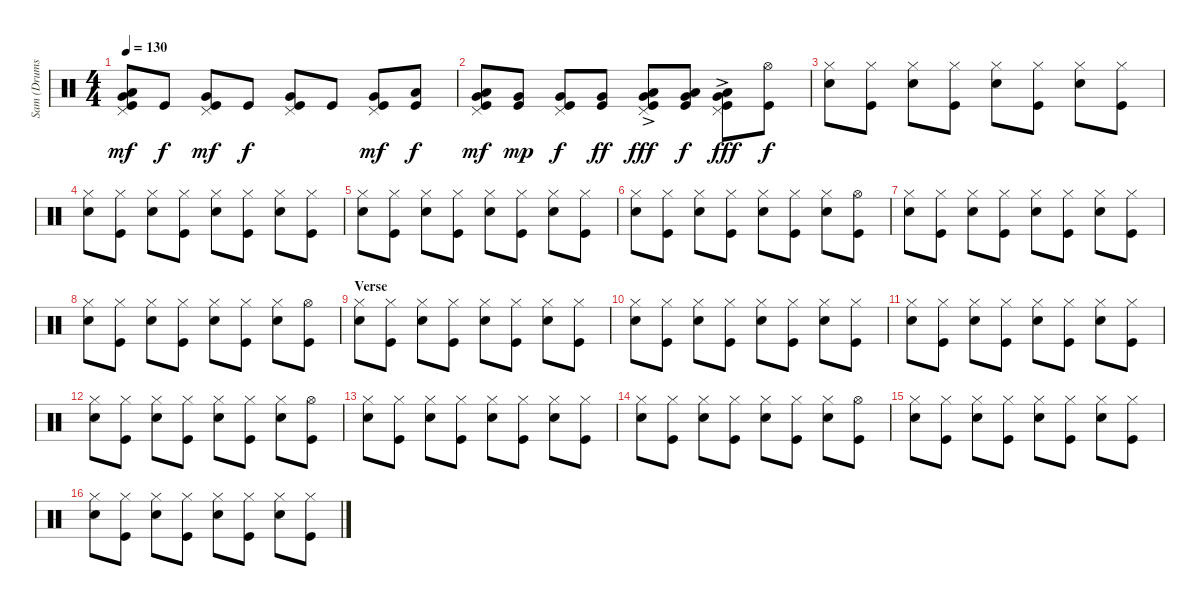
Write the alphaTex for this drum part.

\track ("Sam (Drums)" "Sam (Drums") {instrument percussion}
\staff {score}
\articulation defaults
\ts (4 4)
\tempo 130
\clef neutral
\ks c
("Pedal Hi-Hat (hit)" "Low Tom (hit)" "Very Low Tom (hit)" "Kick (hit)").8{dy mf} "Kick (hit)".8{dy f} ("Pedal Hi-Hat (hit)" "Very Low Tom (hit)" "Kick (hit)").8{dy mf} "Kick (hit)".8{dy f} ("Pedal Hi-Hat (hit)" "Very Low Tom (hit)" "Kick (hit)").8 "Kick (hit)".8 ("Pedal Hi-Hat (hit)" "Very Low Tom (hit)" "Kick (hit)").8{dy mf} ("Low Floor Tom (hit)" "Kick (hit)").8{dy f} |
("Pedal Hi-Hat (hit)" "Low Tom (hit)" "Very Low Tom (hit)" "Kick (hit)").8{dy mf} ("Very Low Tom (hit)" "Kick (hit)").8{dy mp} ("Pedal Hi-Hat (hit)" "Very Low Tom (hit)" "Kick (hit)").8{dy f} ("Very Low Tom (hit)" "Kick (hit)").8{dy ff} ("Pedal Hi-Hat (hit)"{ac} "Low Tom (hit)" "Very Low Tom (hit)" "Kick (hit)").8{dy fff} ("Very Low Tom (hit)" "Low Floor Tom (hit)" "Kick (hit)").8{dy f} ("Pedal Hi-Hat (hit)"{ac} "Low Tom (hit)" "Very Low Tom (hit)" "Kick (hit)").8{dy fff} ("Hi-Hat (open)" "Kick (hit)").8{dy f} |
("Hi-Hat (closed)" "Snare (hit) 2").8 ("Hi-Hat (closed)" "Kick (hit)").8 ("Hi-Hat (closed)" "Snare (hit) 2").8 ("Hi-Hat (closed)" "Kick (hit)").8 ("Hi-Hat (closed)" "Snare (hit) 2").8 ("Hi-Hat (closed)" "Kick (hit)").8 ("Hi-Hat (closed)" "Snare (hit) 2").8 ("Hi-Hat (closed)" "Kick (hit)").8 |
("Hi-Hat (closed)" "Snare (hit) 2").8 ("Hi-Hat (closed)" "Kick (hit)").8 ("Hi-Hat (closed)" "Snare (hit) 2").8 ("Hi-Hat (closed)" "Kick (hit)").8 ("Hi-Hat (closed)" "Snare (hit) 2").8 ("Hi-Hat (closed)" "Kick (hit)").8 ("Hi-Hat (closed)" "Snare (hit) 2").8 ("Hi-Hat (closed)" "Kick (hit)").8 |
("Hi-Hat (closed)" "Snare (hit) 2").8 ("Hi-Hat (closed)" "Kick (hit)").8 ("Hi-Hat (closed)" "Snare (hit) 2").8 ("Hi-Hat (closed)" "Kick (hit)").8 ("Hi-Hat (closed)" "Snare (hit) 2").8 ("Hi-Hat (closed)" "Kick (hit)").8 ("Hi-Hat (closed)" "Snare (hit) 2").8 ("Hi-Hat (closed)" "Kick (hit)").8 |
("Hi-Hat (closed)" "Snare (hit) 2").8 ("Hi-Hat (closed)" "Kick (hit)").8 ("Hi-Hat (closed)" "Snare (hit) 2").8 ("Hi-Hat (closed)" "Kick (hit)").8 ("Hi-Hat (closed)" "Snare (hit) 2").8 ("Hi-Hat (closed)" "Kick (hit)").8 ("Hi-Hat (closed)" "Snare (hit) 2").8 ("Hi-Hat (open)" "Kick (hit)").8 |
("Hi-Hat (closed)" "Snare (hit) 2").8 ("Hi-Hat (closed)" "Kick (hit)").8 ("Hi-Hat (closed)" "Snare (hit) 2").8 ("Hi-Hat (closed)" "Kick (hit)").8 ("Hi-Hat (closed)" "Snare (hit) 2").8 ("Hi-Hat (closed)" "Kick (hit)").8 ("Hi-Hat (closed)" "Snare (hit) 2").8 ("Hi-Hat (closed)" "Kick (hit)").8 |
("Hi-Hat (closed)" "Snare (hit) 2").8 ("Hi-Hat (closed)" "Kick (hit)").8 ("Hi-Hat (closed)" "Snare (hit) 2").8 ("Hi-Hat (closed)" "Kick (hit)").8 ("Hi-Hat (closed)" "Snare (hit) 2").8 ("Hi-Hat (closed)" "Kick (hit)").8 ("Hi-Hat (closed)" "Snare (hit) 2").8 ("Hi-Hat (open)" "Kick (hit)").8 |
\section ("" "Verse")
("Hi-Hat (closed)" "Snare (hit) 2").8 ("Hi-Hat (closed)" "Kick (hit)").8 ("Hi-Hat (closed)" "Snare (hit) 2").8 ("Hi-Hat (closed)" "Kick (hit)").8 ("Hi-Hat (closed)" "Snare (hit) 2").8 ("Hi-Hat (closed)" "Kick (hit)").8 ("Hi-Hat (closed)" "Snare (hit) 2").8 ("Hi-Hat (closed)" "Kick (hit)").8 |
("Hi-Hat (closed)" "Snare (hit) 2").8 ("Hi-Hat (closed)" "Kick (hit)").8 ("Hi-Hat (closed)" "Snare (hit) 2").8 ("Hi-Hat (closed)" "Kick (hit)").8 ("Hi-Hat (closed)" "Snare (hit) 2").8 ("Hi-Hat (closed)" "Kick (hit)").8 ("Hi-Hat (closed)" "Snare (hit) 2").8 ("Hi-Hat (closed)" "Kick (hit)").8 |
("Hi-Hat (closed)" "Snare (hit) 2").8 ("Hi-Hat (closed)" "Kick (hit)").8 ("Hi-Hat (closed)" "Snare (hit) 2").8 ("Hi-Hat (closed)" "Kick (hit)").8 ("Hi-Hat (closed)" "Snare (hit) 2").8 ("Hi-Hat (closed)" "Kick (hit)").8 ("Hi-Hat (closed)" "Snare (hit) 2").8 ("Hi-Hat (closed)" "Kick (hit)").8 |
("Hi-Hat (closed)" "Snare (hit) 2").8 ("Hi-Hat (closed)" "Kick (hit)").8 ("Hi-Hat (closed)" "Snare (hit) 2").8 ("Hi-Hat (closed)" "Kick (hit)").8 ("Hi-Hat (closed)" "Snare (hit) 2").8 ("Hi-Hat (closed)" "Kick (hit)").8 ("Hi-Hat (closed)" "Snare (hit) 2").8 ("Hi-Hat (open)" "Kick (hit)").8 |
("Hi-Hat (closed)" "Snare (hit) 2").8 ("Hi-Hat (closed)" "Kick (hit)").8 ("Hi-Hat (closed)" "Snare (hit) 2").8 ("Hi-Hat (closed)" "Kick (hit)").8 ("Hi-Hat (closed)" "Snare (hit) 2").8 ("Hi-Hat (closed)" "Kick (hit)").8 ("Hi-Hat (closed)" "Snare (hit) 2").8 ("Hi-Hat (closed)" "Kick (hit)").8 |
("Hi-Hat (closed)" "Snare (hit) 2").8 ("Hi-Hat (closed)" "Kick (hit)").8 ("Hi-Hat (closed)" "Snare (hit) 2").8 ("Hi-Hat (closed)" "Kick (hit)").8 ("Hi-Hat (closed)" "Snare (hit) 2").8 ("Hi-Hat (closed)" "Kick (hit)").8 ("Hi-Hat (closed)" "Snare (hit) 2").8 ("Hi-Hat (open)" "Kick (hit)").8 |
("Hi-Hat (closed)" "Snare (hit) 2").8 ("Hi-Hat (closed)" "Kick (hit)").8 ("Hi-Hat (closed)" "Snare (hit) 2").8 ("Hi-Hat (closed)" "Kick (hit)").8 ("Hi-Hat (closed)" "Snare (hit) 2").8 ("Hi-Hat (closed)" "Kick (hit)").8 ("Hi-Hat (closed)" "Snare (hit) 2").8 ("Hi-Hat (closed)" "Kick (hit)").8 |
("Hi-Hat (closed)" "Snare (hit) 2").8 ("Hi-Hat (closed)" "Kick (hit)").8 ("Hi-Hat (closed)" "Snare (hit) 2").8 ("Hi-Hat (closed)" "Kick (hit)").8 ("Hi-Hat (closed)" "Snare (hit) 2").8 ("Hi-Hat (closed)" "Kick (hit)").8 ("Hi-Hat (closed)" "Snare (hit) 2").8 ("Hi-Hat (closed)" "Kick (hit)").8
